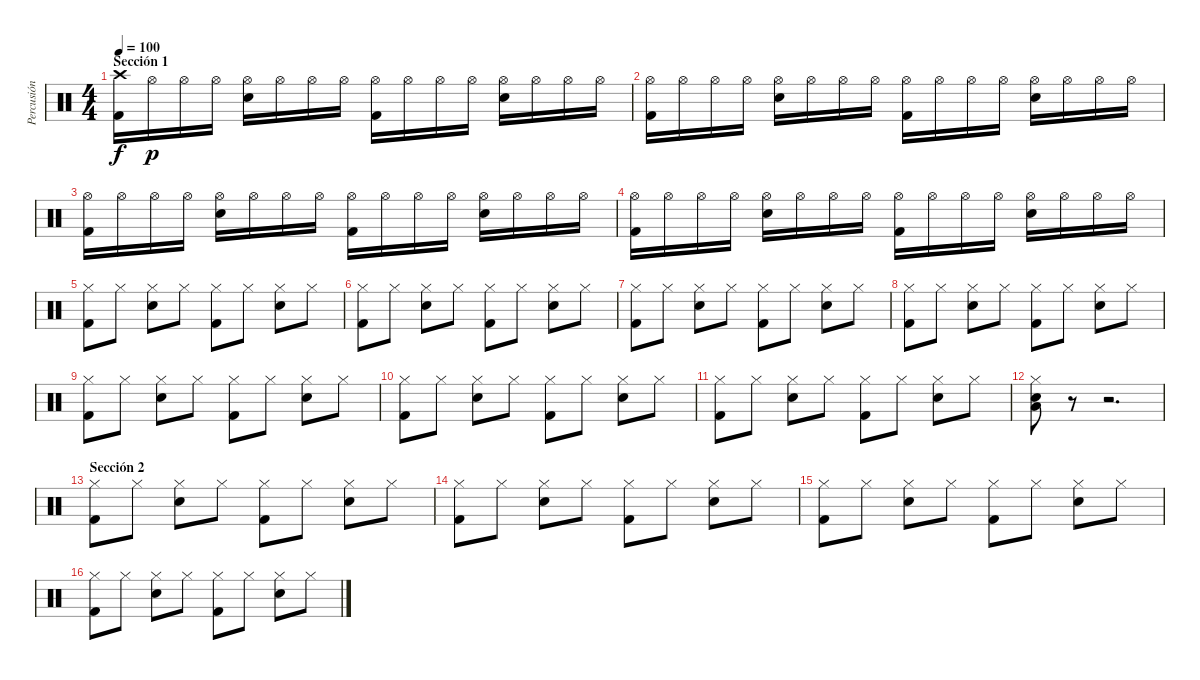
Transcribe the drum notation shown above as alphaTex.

\track ("Percusión" "Percusión") {instrument percussion}
\staff {score}
\articulation defaults
\ts (4 4)
\section ("" "Sección 1")
\tempo 100
\clef neutral
\ks c
("Crash high (hit)" "Kick (hit) 2").16{dy f} "Hi-Hat (open)".16{dy p} "Hi-Hat (open)".16 "Hi-Hat (open)".16 ("Hi-Hat (open)" "Snare (hit) 2").16 "Hi-Hat (open)".16 "Hi-Hat (open)".16 "Hi-Hat (open)".16 ("Hi-Hat (open)" "Kick (hit) 2").16 "Hi-Hat (open)".16 "Hi-Hat (open)".16 "Hi-Hat (open)".16 ("Hi-Hat (open)" "Snare (hit) 2").16 "Hi-Hat (open)".16 "Hi-Hat (open)".16 "Hi-Hat (open)".16 |
("Hi-Hat (open)" "Kick (hit) 2").16 "Hi-Hat (open)".16 "Hi-Hat (open)".16 "Hi-Hat (open)".16 ("Hi-Hat (open)" "Snare (hit) 2").16 "Hi-Hat (open)".16 "Hi-Hat (open)".16 "Hi-Hat (open)".16 ("Hi-Hat (open)" "Kick (hit) 2").16 "Hi-Hat (open)".16 "Hi-Hat (open)".16 "Hi-Hat (open)".16 ("Hi-Hat (open)" "Snare (hit) 2").16 "Hi-Hat (open)".16 "Hi-Hat (open)".16 "Hi-Hat (open)".16 |
("Hi-Hat (open)" "Kick (hit) 2").16 "Hi-Hat (open)".16 "Hi-Hat (open)".16 "Hi-Hat (open)".16 ("Hi-Hat (open)" "Snare (hit) 2").16 "Hi-Hat (open)".16 "Hi-Hat (open)".16 "Hi-Hat (open)".16 ("Hi-Hat (open)" "Kick (hit) 2").16 "Hi-Hat (open)".16 "Hi-Hat (open)".16 "Hi-Hat (open)".16 ("Hi-Hat (open)" "Snare (hit) 2").16 "Hi-Hat (open)".16 "Hi-Hat (open)".16 "Hi-Hat (open)".16 |
("Hi-Hat (open)" "Kick (hit) 2").16 "Hi-Hat (open)".16 "Hi-Hat (open)".16 "Hi-Hat (open)".16 ("Hi-Hat (open)" "Snare (hit) 2").16 "Hi-Hat (open)".16 "Hi-Hat (open)".16 "Hi-Hat (open)".16 ("Hi-Hat (open)" "Kick (hit) 2").16 "Hi-Hat (open)".16 "Hi-Hat (open)".16 "Hi-Hat (open)".16 ("Hi-Hat (open)" "Snare (hit) 2").16 "Hi-Hat (open)".16 "Hi-Hat (open)".16 "Hi-Hat (open)".16 |
("Hi-Hat (closed)" "Kick (hit) 2").8 "Hi-Hat (closed)".8 ("Hi-Hat (closed)" "Snare (hit) 2").8 "Hi-Hat (closed)".8 ("Hi-Hat (closed)" "Kick (hit) 2").8 "Hi-Hat (closed)".8 ("Hi-Hat (closed)" "Snare (hit) 2").8 "Hi-Hat (closed)".8 |
("Hi-Hat (closed)" "Kick (hit) 2").8 "Hi-Hat (closed)".8 ("Hi-Hat (closed)" "Snare (hit) 2").8 "Hi-Hat (closed)".8 ("Hi-Hat (closed)" "Kick (hit) 2").8 "Hi-Hat (closed)".8 ("Hi-Hat (closed)" "Snare (hit) 2").8 "Hi-Hat (closed)".8 |
("Hi-Hat (closed)" "Kick (hit) 2").8 "Hi-Hat (closed)".8 ("Hi-Hat (closed)" "Snare (hit) 2").8 "Hi-Hat (closed)".8 ("Hi-Hat (closed)" "Kick (hit) 2").8 "Hi-Hat (closed)".8 ("Hi-Hat (closed)" "Snare (hit) 2").8 "Hi-Hat (closed)".8 |
("Hi-Hat (closed)" "Kick (hit) 2").8 "Hi-Hat (closed)".8 ("Hi-Hat (closed)" "Snare (hit) 2").8 "Hi-Hat (closed)".8 ("Hi-Hat (closed)" "Kick (hit) 2").8 "Hi-Hat (closed)".8 ("Hi-Hat (closed)" "Snare (hit) 2").8 "Hi-Hat (closed)".8 |
("Hi-Hat (closed)" "Kick (hit) 2").8 "Hi-Hat (closed)".8 ("Hi-Hat (closed)" "Snare (hit) 2").8 "Hi-Hat (closed)".8 ("Hi-Hat (closed)" "Kick (hit) 2").8 "Hi-Hat (closed)".8 ("Hi-Hat (closed)" "Snare (hit) 2").8 "Hi-Hat (closed)".8 |
("Hi-Hat (closed)" "Kick (hit) 2").8 "Hi-Hat (closed)".8 ("Hi-Hat (closed)" "Snare (hit) 2").8 "Hi-Hat (closed)".8 ("Hi-Hat (closed)" "Kick (hit) 2").8 "Hi-Hat (closed)".8 ("Hi-Hat (closed)" "Snare (hit) 2").8 "Hi-Hat (closed)".8 |
("Hi-Hat (closed)" "Kick (hit) 2").8 "Hi-Hat (closed)".8 ("Hi-Hat (closed)" "Snare (hit) 2").8 "Hi-Hat (closed)".8 ("Hi-Hat (closed)" "Kick (hit) 2").8 "Hi-Hat (closed)".8 ("Hi-Hat (closed)" "Snare (hit) 2").8 "Hi-Hat (closed)".8 |
("Hi-Hat (closed)" "Snare (hit) 2" "Low Tom (hit)").8 r.8 r.2{d} |
\section ("" "Sección 2")
("Hi-Hat (closed)" "Kick (hit) 2").8 "Hi-Hat (closed)".8 ("Hi-Hat (closed)" "Snare (hit) 2").8 "Hi-Hat (closed)".8 ("Hi-Hat (closed)" "Kick (hit) 2").8 "Hi-Hat (closed)".8 ("Hi-Hat (closed)" "Snare (hit) 2").8 "Hi-Hat (closed)".8 |
("Hi-Hat (closed)" "Kick (hit) 2").8 "Hi-Hat (closed)".8 ("Hi-Hat (closed)" "Snare (hit) 2").8 "Hi-Hat (closed)".8 ("Hi-Hat (closed)" "Kick (hit) 2").8 "Hi-Hat (closed)".8 ("Hi-Hat (closed)" "Snare (hit) 2").8 "Hi-Hat (closed)".8 |
("Hi-Hat (closed)" "Kick (hit) 2").8 "Hi-Hat (closed)".8 ("Hi-Hat (closed)" "Snare (hit) 2").8 "Hi-Hat (closed)".8 ("Hi-Hat (closed)" "Kick (hit) 2").8 "Hi-Hat (closed)".8 ("Hi-Hat (closed)" "Snare (hit) 2").8 "Hi-Hat (closed)".8 |
("Hi-Hat (closed)" "Kick (hit) 2").8 "Hi-Hat (closed)".8 ("Hi-Hat (closed)" "Snare (hit) 2").8 "Hi-Hat (closed)".8 ("Hi-Hat (closed)" "Kick (hit) 2").8 "Hi-Hat (closed)".8 ("Hi-Hat (closed)" "Snare (hit) 2").8 "Hi-Hat (closed)".8
